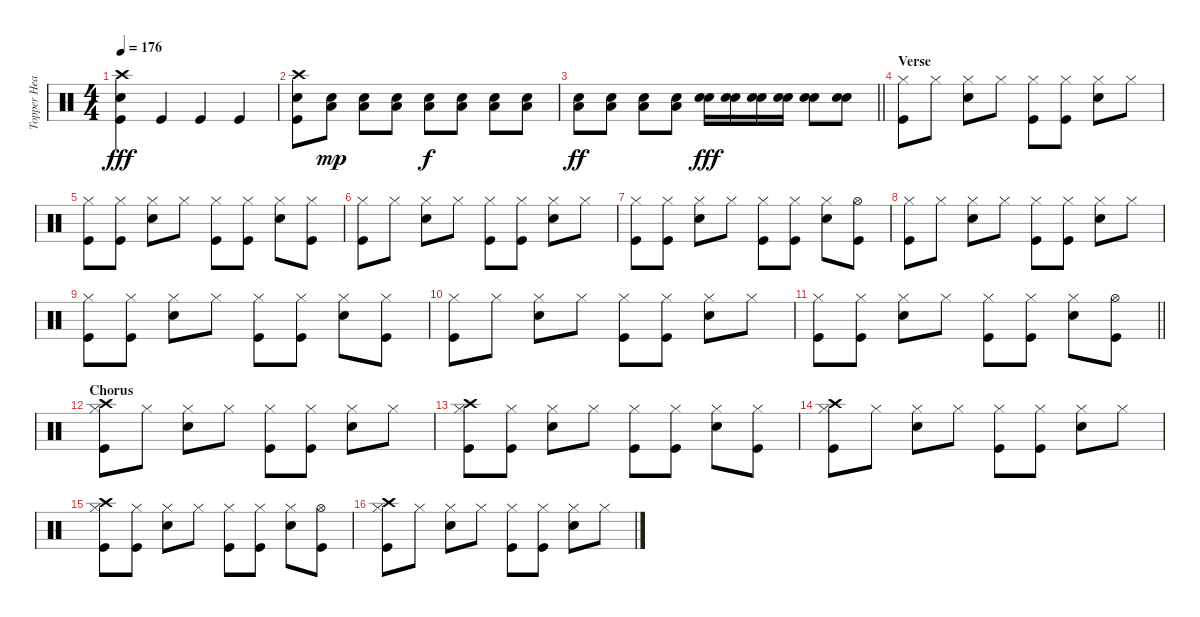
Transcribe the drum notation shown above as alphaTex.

\track ("Topper Headon - Drums" "Topper Hea") {instrument percussion}
\staff {score}
\articulation defaults
\ts (4 4)
\tempo 176
\clef neutral
\ks c
("Crash high (hit)" "Snare (hit) 2" "Kick (hit)").4{dy fff} "Kick (hit)".4 "Kick (hit)".4 "Kick (hit)".4 |
("Crash high (hit)" "Snare (hit) 2" "Kick (hit)").8 ("Snare (hit) 2" "Low Floor Tom (hit)").8{dy mp} ("Snare (hit) 2" "Low Floor Tom (hit)").8 ("Snare (hit) 2" "Low Floor Tom (hit)").8 ("Snare (hit) 2" "Low Floor Tom (hit)").8{dy f} ("Snare (hit) 2" "Low Floor Tom (hit)").8 ("Snare (hit) 2" "Low Floor Tom (hit)").8 ("Snare (hit) 2" "Low Floor Tom (hit)").8 |
\barLineRight lightlight
("Low Floor Tom (hit)" "Snare (hit) 2").8{dy ff} ("Low Floor Tom (hit)" "Snare (hit) 2").8 ("Low Floor Tom (hit)" "Snare (hit) 2").8 ("Low Floor Tom (hit)" "Snare (hit) 2").8 ("Snare (hit) 2" "Snare (hit) 2").16{dy fff} ("Snare (hit) 2" "Snare (hit) 2").16 ("Snare (hit) 2" "Snare (hit) 2").16 ("Snare (hit) 2" "Snare (hit) 2").16 ("Snare (hit) 2" "Snare (hit) 2").8 ("Snare (hit) 2" "Snare (hit) 2").8 |
\section ("" "Verse")
("Hi-Hat (closed)" "Kick (hit)").8 "Hi-Hat (closed)".8 ("Hi-Hat (closed)" "Snare (hit) 2").8 "Hi-Hat (closed)".8 ("Hi-Hat (closed)" "Kick (hit)").8 ("Hi-Hat (closed)" "Kick (hit)").8 ("Hi-Hat (closed)" "Snare (hit) 2").8 "Hi-Hat (closed)".8 |
("Kick (hit)" "Hi-Hat (closed)").8 ("Kick (hit)" "Hi-Hat (closed)").8 ("Hi-Hat (closed)" "Snare (hit) 2").8 "Hi-Hat (closed)".8 ("Kick (hit)" "Hi-Hat (closed)").8 ("Kick (hit)" "Hi-Hat (closed)").8 ("Hi-Hat (closed)" "Snare (hit) 2").8 ("Hi-Hat (closed)" "Kick (hit)").8 |
("Hi-Hat (closed)" "Kick (hit)").8 "Hi-Hat (closed)".8 ("Hi-Hat (closed)" "Snare (hit) 2").8 "Hi-Hat (closed)".8 ("Hi-Hat (closed)" "Kick (hit)").8 ("Hi-Hat (closed)" "Kick (hit)").8 ("Hi-Hat (closed)" "Snare (hit) 2").8 "Hi-Hat (closed)".8 |
("Kick (hit)" "Hi-Hat (closed)").8 ("Kick (hit)" "Hi-Hat (closed)").8 ("Hi-Hat (closed)" "Snare (hit) 2").8 "Hi-Hat (closed)".8 ("Kick (hit)" "Hi-Hat (closed)").8 ("Kick (hit)" "Hi-Hat (closed)").8 ("Hi-Hat (closed)" "Snare (hit) 2").8 ("Kick (hit)" "Hi-Hat (open)").8 |
("Hi-Hat (closed)" "Kick (hit)").8 "Hi-Hat (closed)".8 ("Hi-Hat (closed)" "Snare (hit) 2").8 "Hi-Hat (closed)".8 ("Hi-Hat (closed)" "Kick (hit)").8 ("Hi-Hat (closed)" "Kick (hit)").8 ("Hi-Hat (closed)" "Snare (hit) 2").8 "Hi-Hat (closed)".8 |
("Kick (hit)" "Hi-Hat (closed)").8 ("Kick (hit)" "Hi-Hat (closed)").8 ("Hi-Hat (closed)" "Snare (hit) 2").8 "Hi-Hat (closed)".8 ("Kick (hit)" "Hi-Hat (closed)").8 ("Kick (hit)" "Hi-Hat (closed)").8 ("Hi-Hat (closed)" "Snare (hit) 2").8 ("Hi-Hat (closed)" "Kick (hit)").8 |
("Hi-Hat (closed)" "Kick (hit)").8 "Hi-Hat (closed)".8 ("Hi-Hat (closed)" "Snare (hit) 2").8 "Hi-Hat (closed)".8 ("Hi-Hat (closed)" "Kick (hit)").8 ("Hi-Hat (closed)" "Kick (hit)").8 ("Hi-Hat (closed)" "Snare (hit) 2").8 "Hi-Hat (closed)".8 |
\barLineRight lightlight
("Kick (hit)" "Hi-Hat (closed)").8 ("Kick (hit)" "Hi-Hat (closed)").8 ("Hi-Hat (closed)" "Snare (hit) 2").8 "Hi-Hat (closed)".8 ("Kick (hit)" "Hi-Hat (closed)").8 ("Kick (hit)" "Hi-Hat (closed)").8 ("Hi-Hat (closed)" "Snare (hit) 2").8 ("Kick (hit)" "Hi-Hat (open)").8 |
\section ("" "Chorus")
("Hi-Hat (closed)" "Kick (hit)" "Crash high (hit)").8 "Hi-Hat (closed)".8 ("Hi-Hat (closed)" "Snare (hit) 2").8 "Hi-Hat (closed)".8 ("Hi-Hat (closed)" "Kick (hit)").8 ("Hi-Hat (closed)" "Kick (hit)").8 ("Hi-Hat (closed)" "Snare (hit) 2").8 "Hi-Hat (closed)".8 |
("Kick (hit)" "Hi-Hat (closed)" "Crash high (hit)").8 ("Kick (hit)" "Hi-Hat (closed)").8 ("Hi-Hat (closed)" "Snare (hit) 2").8 "Hi-Hat (closed)".8 ("Kick (hit)" "Hi-Hat (closed)").8 ("Kick (hit)" "Hi-Hat (closed)").8 ("Hi-Hat (closed)" "Snare (hit) 2").8 ("Hi-Hat (closed)" "Kick (hit)").8 |
("Hi-Hat (closed)" "Kick (hit)" "Crash high (hit)").8 "Hi-Hat (closed)".8 ("Hi-Hat (closed)" "Snare (hit) 2").8 "Hi-Hat (closed)".8 ("Hi-Hat (closed)" "Kick (hit)").8 ("Hi-Hat (closed)" "Kick (hit)").8 ("Hi-Hat (closed)" "Snare (hit) 2").8 "Hi-Hat (closed)".8 |
("Kick (hit)" "Hi-Hat (closed)" "Crash high (hit)").8 ("Kick (hit)" "Hi-Hat (closed)").8 ("Hi-Hat (closed)" "Snare (hit) 2").8 "Hi-Hat (closed)".8 ("Kick (hit)" "Hi-Hat (closed)").8 ("Kick (hit)" "Hi-Hat (closed)").8 ("Hi-Hat (closed)" "Snare (hit) 2").8 ("Kick (hit)" "Hi-Hat (open)").8 |
("Hi-Hat (closed)" "Kick (hit)" "Crash high (hit)").8 "Hi-Hat (closed)".8 ("Hi-Hat (closed)" "Snare (hit) 2").8 "Hi-Hat (closed)".8 ("Hi-Hat (closed)" "Kick (hit)").8 ("Hi-Hat (closed)" "Kick (hit)").8 ("Hi-Hat (closed)" "Snare (hit) 2").8 "Hi-Hat (closed)".8
